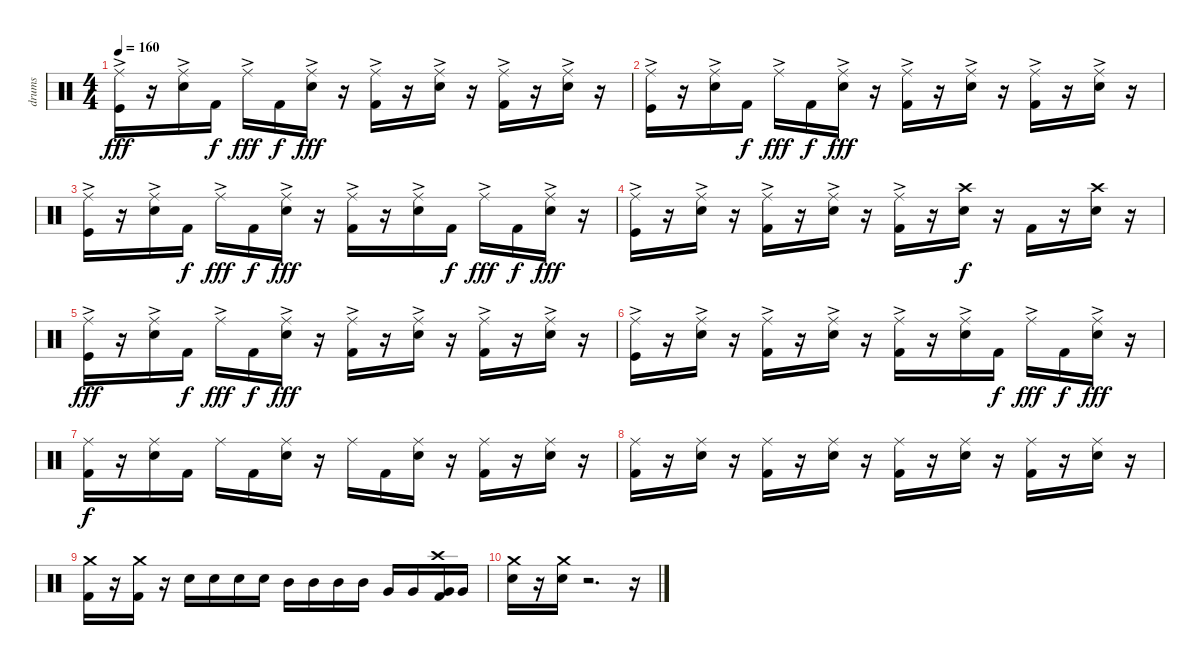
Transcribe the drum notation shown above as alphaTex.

\track ("drums" "drums") {instrument percussion}
\staff {score}
\articulation defaults
\ts (4 4)
\tempo 160
\clef neutral
\ks c
("Ride (middle)"{ac} "Kick (hit)").16{dy fff} r.16 ("Ride (middle)"{ac} "Snare (hit) 2").16 "Kick (hit) 2".16{dy f} "Ride (middle)"{ac}.16{dy fff} "Kick (hit) 2".16{dy f} ("Ride (middle)"{ac} "Snare (hit) 2").16{dy fff} r.16 ("Ride (middle)"{ac} "Kick (hit) 2").16 r.16 ("Ride (middle)"{ac} "Snare (hit) 2").16 r.16 ("Ride (middle)"{ac} "Kick (hit) 2").16 r.16 ("Ride (middle)"{ac} "Snare (hit) 2").16 r.16 |
("Ride (middle)"{ac} "Kick (hit)").16 r.16 ("Ride (middle)"{ac} "Snare (hit) 2").16 "Kick (hit) 2".16{dy f} "Ride (middle)"{ac}.16{dy fff} "Kick (hit) 2".16{dy f} ("Ride (middle)"{ac} "Snare (hit) 2").16{dy fff} r.16 ("Ride (middle)"{ac} "Kick (hit) 2").16 r.16 ("Ride (middle)"{ac} "Snare (hit) 2").16 r.16 ("Ride (middle)"{ac} "Kick (hit) 2").16 r.16 ("Ride (middle)"{ac} "Snare (hit) 2").16 r.16 |
("Ride (middle)"{ac} "Kick (hit)").16 r.16 ("Ride (middle)"{ac} "Snare (hit) 2").16 "Kick (hit) 2".16{dy f} "Ride (middle)"{ac}.16{dy fff} "Kick (hit) 2".16{dy f} ("Ride (middle)"{ac} "Snare (hit) 2").16{dy fff} r.16 ("Ride (middle)"{ac} "Kick (hit) 2").16 r.16 ("Ride (middle)"{ac} "Snare (hit) 2").16 "Kick (hit) 2".16{dy f} "Ride (middle)"{ac}.16{dy fff} "Kick (hit) 2".16{dy f} ("Ride (middle)"{ac} "Snare (hit) 2").16{dy fff} r.16 |
("Ride (middle)"{ac} "Kick (hit)").16 r.16 ("Ride (middle)"{ac} "Snare (hit) 2").16 r.16 ("Ride (middle)"{ac} "Kick (hit) 2").16 r.16 ("Ride (middle)"{ac} "Snare (hit) 2").16 r.16 ("Ride (middle)"{ac} "Kick (hit) 2").16 r.16 ("Crash high (hit)" "Snare (hit) 2").16{dy f} r.16 "Kick (hit) 2".16 r.16 ("Crash high (hit)" "Snare (hit) 2").16 r.16 |
("Ride (middle)"{ac} "Kick (hit)").16{dy fff} r.16 ("Ride (middle)"{ac} "Snare (hit) 2").16 "Kick (hit) 2".16{dy f} "Ride (middle)"{ac}.16{dy fff} "Kick (hit) 2".16{dy f} ("Ride (middle)"{ac} "Snare (hit) 2").16{dy fff} r.16 ("Ride (middle)"{ac} "Kick (hit) 2").16 r.16 ("Ride (middle)"{ac} "Snare (hit) 2").16 r.16 ("Ride (middle)"{ac} "Kick (hit) 2").16 r.16 ("Ride (middle)"{ac} "Snare (hit) 2").16 r.16 |
("Ride (middle)"{ac} "Kick (hit)").16 r.16 ("Ride (middle)"{ac} "Snare (hit) 2").16 r.16 ("Ride (middle)"{ac} "Kick (hit) 2").16 r.16 ("Ride (middle)"{ac} "Snare (hit) 2").16 r.16 ("Ride (middle)"{ac} "Kick (hit) 2").16 r.16 ("Ride (middle)"{ac} "Snare (hit) 2").16 "Kick (hit) 2".16{dy f} "Ride (middle)"{ac}.16{dy fff} "Kick (hit) 2".16{dy f} ("Ride (middle)"{ac} "Snare (hit) 2").16{dy fff} r.16 |
("Ride (middle)" "Kick (hit) 2").16{dy f} r.16 ("Ride (middle)" "Snare (hit) 2").16 "Kick (hit) 2".16 "Ride (middle)".16 "Kick (hit) 2".16 ("Ride (middle)" "Snare (hit) 2").16 r.16 "Ride (middle)".16 "Kick (hit) 2".16 ("Ride (middle)" "Snare (hit) 2").16 r.16 ("Ride (middle)" "Kick (hit) 2").16 r.16 ("Ride (middle)" "Snare (hit) 2").16 r.16 |
("Ride (middle)" "Kick (hit) 2").16 r.16 ("Ride (middle)" "Snare (hit) 2").16 r.16 ("Ride (middle)" "Kick (hit) 2").16 r.16 ("Ride (middle)" "Snare (hit) 2").16 r.16 ("Ride (middle)" "Kick (hit) 2").16 r.16 ("Ride (middle)" "Snare (hit) 2").16 r.16 ("Ride (middle)" "Kick (hit) 2").16 r.16 ("Ride (middle)" "Snare (hit) 2").16 r.16 |
("Crash medium (hit)" "Kick (hit) 2").16 r.16 ("Crash medium (hit)" "Kick (hit) 2").16 r.16 "Snare (hit) 2".16 "Snare (hit) 2".16 "Snare (hit) 2".16 "Snare (hit) 2".16 "Mid Tom (hit)".16 "Mid Tom (hit)".16 "Mid Tom (hit)".16 "Mid Tom (hit)".16 "Very Low Tom (hit)".16 "Very Low Tom (hit)".16 ("Crash high (hit)" "Very Low Tom (hit)" "Kick (hit) 2").16 "Very Low Tom (hit)".16 |
("Crash medium (hit)" "Snare (hit) 2").16 r.16 ("Crash medium (hit)" "Snare (hit) 2").16 r.2{d} r.16
